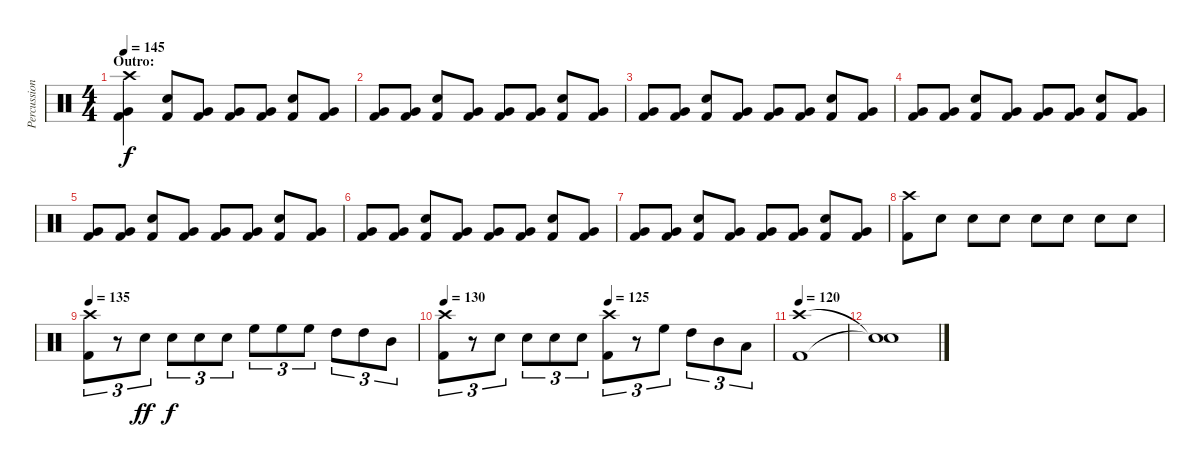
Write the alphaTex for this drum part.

\track ("Percussion" "Percussion") {instrument percussion}
\staff {score}
\articulation defaults
\ts (4 4)
\section ("" "Outro:")
\tempo 145
\clef neutral
\ks c
("Crash high (hit)" "Very Low Tom (hit)" "Kick (hit) 2").4{dy f} ("Electric Snare (hit)" "Kick (hit) 2").8 ("Very Low Tom (hit)" "Kick (hit) 2").8 ("Very Low Tom (hit)" "Kick (hit) 2").8 ("Very Low Tom (hit)" "Kick (hit) 2").8 ("Electric Snare (hit)" "Kick (hit) 2").8 ("Very Low Tom (hit)" "Kick (hit) 2").8 |
("Very Low Tom (hit)" "Kick (hit) 2").8 ("Very Low Tom (hit)" "Kick (hit) 2").8 ("Electric Snare (hit)" "Kick (hit) 2").8 ("Very Low Tom (hit)" "Kick (hit) 2").8 ("Very Low Tom (hit)" "Kick (hit) 2").8 ("Very Low Tom (hit)" "Kick (hit) 2").8 ("Electric Snare (hit)" "Kick (hit) 2").8 ("Very Low Tom (hit)" "Kick (hit) 2").8 |
("Very Low Tom (hit)" "Kick (hit) 2").8 ("Very Low Tom (hit)" "Kick (hit) 2").8 ("Electric Snare (hit)" "Kick (hit) 2").8 ("Very Low Tom (hit)" "Kick (hit) 2").8 ("Very Low Tom (hit)" "Kick (hit) 2").8 ("Very Low Tom (hit)" "Kick (hit) 2").8 ("Electric Snare (hit)" "Kick (hit) 2").8 ("Very Low Tom (hit)" "Kick (hit) 2").8 |
("Very Low Tom (hit)" "Kick (hit) 2").8 ("Very Low Tom (hit)" "Kick (hit) 2").8 ("Electric Snare (hit)" "Kick (hit) 2").8 ("Very Low Tom (hit)" "Kick (hit) 2").8 ("Very Low Tom (hit)" "Kick (hit) 2").8 ("Very Low Tom (hit)" "Kick (hit) 2").8 ("Electric Snare (hit)" "Kick (hit) 2").8 ("Very Low Tom (hit)" "Kick (hit) 2").8 |
("Very Low Tom (hit)" "Kick (hit) 2").8 ("Very Low Tom (hit)" "Kick (hit) 2").8 ("Electric Snare (hit)" "Kick (hit) 2").8 ("Very Low Tom (hit)" "Kick (hit) 2").8 ("Very Low Tom (hit)" "Kick (hit) 2").8 ("Very Low Tom (hit)" "Kick (hit) 2").8 ("Electric Snare (hit)" "Kick (hit) 2").8 ("Very Low Tom (hit)" "Kick (hit) 2").8 |
("Very Low Tom (hit)" "Kick (hit) 2").8 ("Very Low Tom (hit)" "Kick (hit) 2").8 ("Electric Snare (hit)" "Kick (hit) 2").8 ("Very Low Tom (hit)" "Kick (hit) 2").8 ("Very Low Tom (hit)" "Kick (hit) 2").8 ("Very Low Tom (hit)" "Kick (hit) 2").8 ("Electric Snare (hit)" "Kick (hit) 2").8 ("Very Low Tom (hit)" "Kick (hit) 2").8 |
("Very Low Tom (hit)" "Kick (hit) 2").8 ("Very Low Tom (hit)" "Kick (hit) 2").8 ("Electric Snare (hit)" "Kick (hit) 2").8 ("Very Low Tom (hit)" "Kick (hit) 2").8 ("Very Low Tom (hit)" "Kick (hit) 2").8 ("Very Low Tom (hit)" "Kick (hit) 2").8 ("Electric Snare (hit)" "Kick (hit) 2").8 ("Very Low Tom (hit)" "Kick (hit) 2").8 |
("Crash high (hit)" "Kick (hit) 2").8 "Electric Snare (hit)".8 "Electric Snare (hit)".8 "Electric Snare (hit)".8 "Electric Snare (hit)".8 "Electric Snare (hit)".8 "Electric Snare (hit)".8 "Electric Snare (hit)".8 |
\tempo 135
("Crash high (hit)" "Kick (hit) 2").8{tu (3 2)} r.8{tu (3 2)} "Electric Snare (hit)".8{tu (3 2) dy ff} "Electric Snare (hit)".8{tu (3 2) dy f} "Electric Snare (hit)".8{tu (3 2)} "Electric Snare (hit)".8{tu (3 2)} "High Floor Tom (hit)".8{tu (3 2)} "High Floor Tom (hit)".8{tu (3 2)} "High Floor Tom (hit)".8{tu (3 2)} "High Tom (hit)".8{tu (3 2)} "High Tom (hit)".8{tu (3 2)} "Mid Tom (hit)".8{tu (3 2)} |
\tempo 130
\tempo (125 0.5)
("Crash high (hit)" "Kick (hit) 2").8{tu (3 2)} r.8{tu (3 2)} "Electric Snare (hit)".8{tu (3 2)} "Electric Snare (hit)".8{tu (3 2)} "Electric Snare (hit)".8{tu (3 2)} "Electric Snare (hit)".8{tu (3 2)} ("Crash high (hit)" "Kick (hit) 2").8{tu (3 2)} r.8{tu (3 2)} "High Floor Tom (hit)".8{tu (3 2)} "High Tom (hit)".8{tu (3 2)} "Mid Tom (hit)".8{tu (3 2)} "Low Tom (hit)".8{tu (3 2)} |
\tempo 120
("Crash high (hit)" "Kick (hit) 2").1 |
("Snare (hit)"{t} "Snare (hit)"{t}).1
